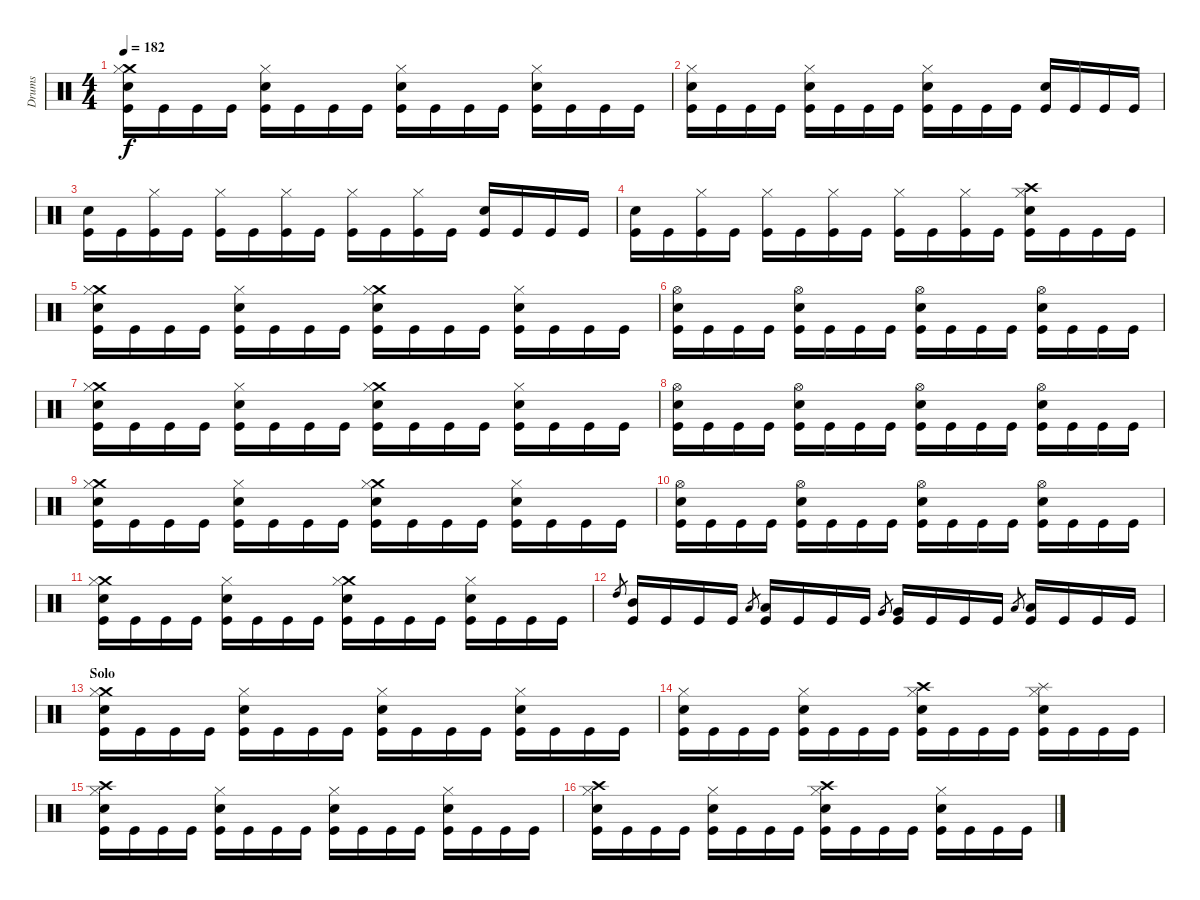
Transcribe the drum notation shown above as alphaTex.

\track ("Drums" "Drums") {instrument percussion}
\staff {score}
\articulation defaults
\ts (4 4)
\tempo 182
\clef neutral
\ks c
("Crash medium (hit)" "Hi-Hat (closed)" "Snare (hit) 2" "Kick (hit)").16{dy f} "Kick (hit)".16 "Kick (hit)".16 "Kick (hit)".16 ("Hi-Hat (closed)" "Snare (hit) 2" "Kick (hit)").16 "Kick (hit)".16 "Kick (hit)".16 "Kick (hit)".16 ("Hi-Hat (closed)" "Snare (hit) 2" "Kick (hit)").16 "Kick (hit)".16 "Kick (hit)".16 "Kick (hit)".16 ("Hi-Hat (closed)" "Snare (hit) 2" "Kick (hit)").16 "Kick (hit)".16 "Kick (hit)".16 "Kick (hit)".16 |
("Hi-Hat (closed)" "Snare (hit) 2" "Kick (hit)").16 "Kick (hit)".16 "Kick (hit)".16 "Kick (hit)".16 ("Hi-Hat (closed)" "Snare (hit) 2" "Kick (hit)").16 "Kick (hit)".16 "Kick (hit)".16 "Kick (hit)".16 ("Hi-Hat (closed)" "Snare (hit) 2" "Kick (hit)").16 "Kick (hit)".16 "Kick (hit)".16 "Kick (hit)".16 ("Snare (hit) 2" "Kick (hit)").16 "Kick (hit)".16 "Kick (hit)".16 "Kick (hit)".16 |
("Snare (hit) 2" "Kick (hit)").16 "Kick (hit)".16 ("Hi-Hat (closed)" "Kick (hit)").16 "Kick (hit)".16 ("Hi-Hat (closed)" "Kick (hit)").16 "Kick (hit)".16 ("Hi-Hat (closed)" "Kick (hit)").16 "Kick (hit)".16 ("Hi-Hat (closed)" "Kick (hit)").16 "Kick (hit)".16 ("Hi-Hat (closed)" "Kick (hit)").16 "Kick (hit)".16 ("Snare (hit) 2" "Kick (hit)").16 "Kick (hit)".16 "Kick (hit)".16 "Kick (hit)".16 |
("Snare (hit) 2" "Kick (hit)").16 "Kick (hit)".16 ("Hi-Hat (closed)" "Kick (hit)").16 "Kick (hit)".16 ("Hi-Hat (closed)" "Kick (hit)").16 "Kick (hit)".16 ("Hi-Hat (closed)" "Kick (hit)").16 "Kick (hit)".16 ("Hi-Hat (closed)" "Kick (hit)").16 "Kick (hit)".16 ("Hi-Hat (closed)" "Kick (hit)").16 "Kick (hit)".16 ("Crash high (hit)" "Hi-Hat (closed)" "Snare (hit) 2" "Kick (hit)").16 "Kick (hit)".16 "Kick (hit)".16 "Kick (hit)".16 |
("Crash medium (hit)" "Hi-Hat (closed)" "Snare (hit) 2" "Kick (hit)").16 "Kick (hit)".16 "Kick (hit)".16 "Kick (hit)".16 ("Hi-Hat (closed)" "Snare (hit) 2" "Kick (hit)").16 "Kick (hit)".16 "Kick (hit)".16 "Kick (hit)".16 ("Crash medium (hit)" "Hi-Hat (closed)" "Snare (hit) 2" "Kick (hit)").16 "Kick (hit)".16 "Kick (hit)".16 "Kick (hit)".16 ("Hi-Hat (closed)" "Snare (hit) 2" "Kick (hit)").16 "Kick (hit)".16 "Kick (hit)".16 "Kick (hit)".16 |
("Hi-Hat (open)" "Snare (hit) 2" "Kick (hit)").16 "Kick (hit)".16 "Kick (hit)".16 "Kick (hit)".16 ("Hi-Hat (open)" "Snare (hit) 2" "Kick (hit)").16 "Kick (hit)".16 "Kick (hit)".16 "Kick (hit)".16 ("Hi-Hat (open)" "Snare (hit) 2" "Kick (hit)").16 "Kick (hit)".16 "Kick (hit)".16 "Kick (hit)".16 ("Hi-Hat (open)" "Snare (hit) 2" "Kick (hit)").16 "Kick (hit)".16 "Kick (hit)".16 "Kick (hit)".16 |
("Crash medium (hit)" "Hi-Hat (closed)" "Snare (hit) 2" "Kick (hit)").16 "Kick (hit)".16 "Kick (hit)".16 "Kick (hit)".16 ("Hi-Hat (closed)" "Snare (hit) 2" "Kick (hit)").16 "Kick (hit)".16 "Kick (hit)".16 "Kick (hit)".16 ("Crash medium (hit)" "Hi-Hat (closed)" "Snare (hit) 2" "Kick (hit)").16 "Kick (hit)".16 "Kick (hit)".16 "Kick (hit)".16 ("Hi-Hat (closed)" "Snare (hit) 2" "Kick (hit)").16 "Kick (hit)".16 "Kick (hit)".16 "Kick (hit)".16 |
("Hi-Hat (open)" "Snare (hit) 2" "Kick (hit)").16 "Kick (hit)".16 "Kick (hit)".16 "Kick (hit)".16 ("Hi-Hat (open)" "Snare (hit) 2" "Kick (hit)").16 "Kick (hit)".16 "Kick (hit)".16 "Kick (hit)".16 ("Hi-Hat (open)" "Snare (hit) 2" "Kick (hit)").16 "Kick (hit)".16 "Kick (hit)".16 "Kick (hit)".16 ("Hi-Hat (open)" "Snare (hit) 2" "Kick (hit)").16 "Kick (hit)".16 "Kick (hit)".16 "Kick (hit)".16 |
("Crash medium (hit)" "Hi-Hat (closed)" "Snare (hit) 2" "Kick (hit)").16 "Kick (hit)".16 "Kick (hit)".16 "Kick (hit)".16 ("Hi-Hat (closed)" "Snare (hit) 2" "Kick (hit)").16 "Kick (hit)".16 "Kick (hit)".16 "Kick (hit)".16 ("Crash medium (hit)" "Hi-Hat (closed)" "Snare (hit) 2" "Kick (hit)").16 "Kick (hit)".16 "Kick (hit)".16 "Kick (hit)".16 ("Hi-Hat (closed)" "Snare (hit) 2" "Kick (hit)").16 "Kick (hit)".16 "Kick (hit)".16 "Kick (hit)".16 |
("Hi-Hat (open)" "Snare (hit) 2" "Kick (hit)").16 "Kick (hit)".16 "Kick (hit)".16 "Kick (hit)".16 ("Hi-Hat (open)" "Snare (hit) 2" "Kick (hit)").16 "Kick (hit)".16 "Kick (hit)".16 "Kick (hit)".16 ("Hi-Hat (open)" "Snare (hit) 2" "Kick (hit)").16 "Kick (hit)".16 "Kick (hit)".16 "Kick (hit)".16 ("Hi-Hat (open)" "Snare (hit) 2" "Kick (hit)").16 "Kick (hit)".16 "Kick (hit)".16 "Kick (hit)".16 |
("Crash medium (hit)" "Hi-Hat (closed)" "Snare (hit) 2" "Kick (hit)").16 "Kick (hit)".16 "Kick (hit)".16 "Kick (hit)".16 ("Hi-Hat (closed)" "Snare (hit) 2" "Kick (hit)").16 "Kick (hit)".16 "Kick (hit)".16 "Kick (hit)".16 ("Crash medium (hit)" "Hi-Hat (closed)" "Snare (hit) 2" "Kick (hit)").16 "Kick (hit)".16 "Kick (hit)".16 "Kick (hit)".16 ("Hi-Hat (closed)" "Snare (hit) 2" "Kick (hit)").16 "Kick (hit)".16 "Kick (hit)".16 "Kick (hit)".16 |
"High Tom (hit)".8{gr} ("Mid Tom (hit)" "Kick (hit)").16 "Kick (hit)".16 "Kick (hit)".16 "Kick (hit)".16 "Low Tom (hit)".8{gr} ("Low Tom (hit)" "Kick (hit)").16 "Kick (hit)".16 "Kick (hit)".16 "Kick (hit)".16 "Very Low Tom (hit)".8{gr} ("Very Low Tom (hit)" "Kick (hit)").16 "Kick (hit)".16 "Kick (hit)".16 "Kick (hit)".16 "Low Floor Tom (hit)".8{gr} ("Low Floor Tom (hit)" "Kick (hit)").16 "Kick (hit)".16 "Kick (hit)".16 "Kick (hit)".16 |
\section ("" "Solo")
("Crash medium (hit)" "Hi-Hat (closed)" "Snare (hit) 2" "Kick (hit)").16 "Kick (hit)".16 "Kick (hit)".16 "Kick (hit)".16 ("Hi-Hat (closed)" "Snare (hit) 2" "Kick (hit)").16 "Kick (hit)".16 "Kick (hit)".16 "Kick (hit)".16 ("Hi-Hat (closed)" "Snare (hit) 2" "Kick (hit)").16 "Kick (hit)".16 "Kick (hit)".16 "Kick (hit)".16 ("Hi-Hat (closed)" "Snare (hit) 2" "Kick (hit)").16 "Kick (hit)".16 "Kick (hit)".16 "Kick (hit)".16 |
("Hi-Hat (closed)" "Snare (hit) 2" "Kick (hit)").16 "Kick (hit)".16 "Kick (hit)".16 "Kick (hit)".16 ("Hi-Hat (closed)" "Snare (hit) 2" "Kick (hit)").16 "Kick (hit)".16 "Kick (hit)".16 "Kick (hit)".16 ("Crash high (hit)" "Hi-Hat (closed)" "Snare (hit) 2" "Kick (hit)").16 "Kick (hit)".16 "Kick (hit)".16 "Kick (hit)".16 ("Splash (hit)" "Hi-Hat (closed)" "Snare (hit) 2" "Kick (hit)").16 "Kick (hit)".16 "Kick (hit)".16 "Kick (hit)".16 |
("Crash high (hit)" "Hi-Hat (closed)" "Snare (hit) 2" "Kick (hit)").16 "Kick (hit)".16 "Kick (hit)".16 "Kick (hit)".16 ("Hi-Hat (closed)" "Snare (hit) 2" "Kick (hit)").16 "Kick (hit)".16 "Kick (hit)".16 "Kick (hit)".16 ("Hi-Hat (closed)" "Snare (hit) 2" "Kick (hit)").16 "Kick (hit)".16 "Kick (hit)".16 "Kick (hit)".16 ("Hi-Hat (closed)" "Snare (hit) 2" "Kick (hit)").16 "Kick (hit)".16 "Kick (hit)".16 "Kick (hit)".16 |
("Crash high (hit)" "Hi-Hat (closed)" "Snare (hit) 2" "Kick (hit)").16 "Kick (hit)".16 "Kick (hit)".16 "Kick (hit)".16 ("Hi-Hat (closed)" "Snare (hit) 2" "Kick (hit)").16 "Kick (hit)".16 "Kick (hit)".16 "Kick (hit)".16 ("Crash high (hit)" "Hi-Hat (closed)" "Snare (hit) 2" "Kick (hit)").16 "Kick (hit)".16 "Kick (hit)".16 "Kick (hit)".16 ("Hi-Hat (closed)" "Snare (hit) 2" "Kick (hit)").16 "Kick (hit)".16 "Kick (hit)".16 "Kick (hit)".16
